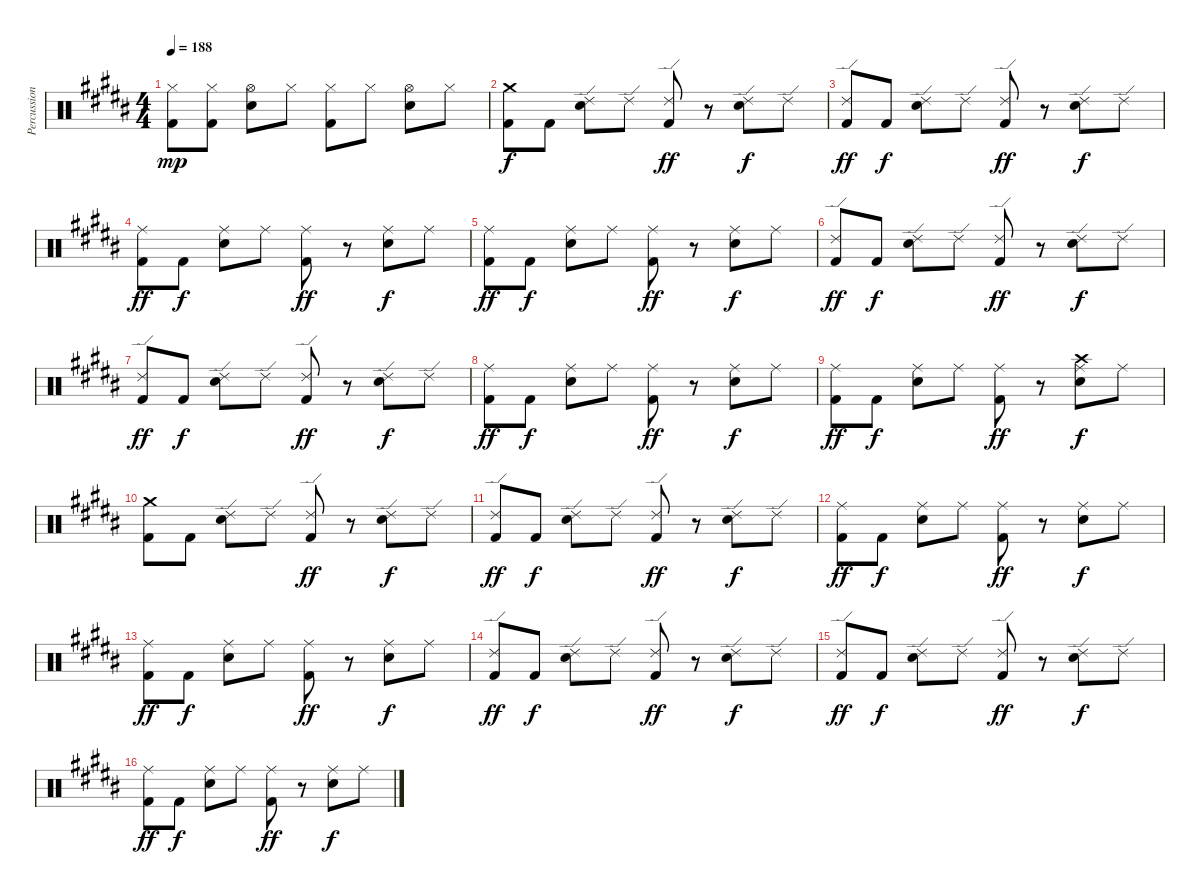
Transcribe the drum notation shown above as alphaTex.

\track ("Percussions" "Percussion") {instrument percussion}
\staff {score}
\articulation defaults
\ts (4 4)
\tempo 188
\clef neutral
\ks b
("Hi-Hat (closed)" "Kick (hit) 2").8{dy mp} ("Hi-Hat (closed)" "Kick (hit) 2").8 ("Hi-Hat (open)" "Snare (hit) 2").8 "Hi-Hat (closed)".8 ("Hi-Hat (closed)" "Kick (hit) 2").8 "Hi-Hat (closed)".8 ("Hi-Hat (open)" "Snare (hit) 2").8 "Hi-Hat (closed)".8 |
("Crash medium (hit)" "Kick (hit) 2").8{dy f} "Kick (hit) 2".8 ("Ride (edge) 2" "Snare (hit) 2").8 "Ride (edge) 2".8 ("Ride (edge) 2" "Kick (hit) 2").8{dy ff} r.8 ("Ride (edge) 2" "Snare (hit) 2").8{dy f} "Ride (edge) 2".8 |
("Ride (edge) 2" "Kick (hit) 2").8{dy ff} "Kick (hit) 2".8{dy f} ("Ride (edge) 2" "Snare (hit) 2").8 "Ride (edge) 2".8 ("Ride (edge) 2" "Kick (hit) 2").8{dy ff} r.8 ("Ride (edge) 2" "Snare (hit) 2").8{dy f} "Ride (edge) 2".8 |
("Ride (middle)" "Kick (hit) 2").8{dy ff} "Kick (hit) 2".8{dy f} ("Ride (middle)" "Snare (hit) 2").8 "Ride (middle)".8 ("Ride (middle)" "Kick (hit) 2").8{dy ff} r.8 ("Ride (middle)" "Snare (hit) 2").8{dy f} "Ride (middle)".8 |
("Ride (middle)" "Kick (hit) 2").8{dy ff} "Kick (hit) 2".8{dy f} ("Ride (middle)" "Snare (hit) 2").8 "Ride (middle)".8 ("Ride (middle)" "Kick (hit) 2").8{dy ff} r.8 ("Ride (middle)" "Snare (hit) 2").8{dy f} "Ride (middle)".8 |
("Ride (edge) 2" "Kick (hit) 2").8{dy ff} "Kick (hit) 2".8{dy f} ("Ride (edge) 2" "Snare (hit) 2").8 "Ride (edge) 2".8 ("Ride (edge) 2" "Kick (hit) 2").8{dy ff} r.8 ("Ride (edge) 2" "Snare (hit) 2").8{dy f} "Ride (edge) 2".8 |
("Ride (edge) 2" "Kick (hit) 2").8{dy ff} "Kick (hit) 2".8{dy f} ("Ride (edge) 2" "Snare (hit) 2").8 "Ride (edge) 2".8 ("Ride (edge) 2" "Kick (hit) 2").8{dy ff} r.8 ("Ride (edge) 2" "Snare (hit) 2").8{dy f} "Ride (edge) 2".8 |
("Ride (middle)" "Kick (hit) 2").8{dy ff} "Kick (hit) 2".8{dy f} ("Ride (middle)" "Snare (hit) 2").8 "Ride (middle)".8 ("Ride (middle)" "Kick (hit) 2").8{dy ff} r.8 ("Ride (middle)" "Snare (hit) 2").8{dy f} "Ride (middle)".8 |
("Ride (middle)" "Kick (hit) 2").8{dy ff} "Kick (hit) 2".8{dy f} ("Ride (middle)" "Snare (hit) 2").8 "Ride (middle)".8 ("Ride (middle)" "Kick (hit) 2").8{dy ff} r.8 ("Crash high (hit)" "Ride (middle)" "Snare (hit) 2").8{dy f} "Ride (middle)".8 |
("Crash medium (hit)" "Kick (hit) 2").8 "Kick (hit) 2".8 ("Ride (edge) 2" "Snare (hit) 2").8 "Ride (edge) 2".8 ("Ride (edge) 2" "Kick (hit) 2").8{dy ff} r.8 ("Ride (edge) 2" "Snare (hit) 2").8{dy f} "Ride (edge) 2".8 |
("Ride (edge) 2" "Kick (hit) 2").8{dy ff} "Kick (hit) 2".8{dy f} ("Ride (edge) 2" "Snare (hit) 2").8 "Ride (edge) 2".8 ("Ride (edge) 2" "Kick (hit) 2").8{dy ff} r.8 ("Ride (edge) 2" "Snare (hit) 2").8{dy f} "Ride (edge) 2".8 |
("Ride (middle)" "Kick (hit) 2").8{dy ff} "Kick (hit) 2".8{dy f} ("Ride (middle)" "Snare (hit) 2").8 "Ride (middle)".8 ("Ride (middle)" "Kick (hit) 2").8{dy ff} r.8 ("Ride (middle)" "Snare (hit) 2").8{dy f} "Ride (middle)".8 |
("Ride (middle)" "Kick (hit) 2").8{dy ff} "Kick (hit) 2".8{dy f} ("Ride (middle)" "Snare (hit) 2").8 "Ride (middle)".8 ("Ride (middle)" "Kick (hit) 2").8{dy ff} r.8 ("Ride (middle)" "Snare (hit) 2").8{dy f} "Ride (middle)".8 |
("Ride (edge) 2" "Kick (hit) 2").8{dy ff} "Kick (hit) 2".8{dy f} ("Ride (edge) 2" "Snare (hit) 2").8 "Ride (edge) 2".8 ("Ride (edge) 2" "Kick (hit) 2").8{dy ff} r.8 ("Ride (edge) 2" "Snare (hit) 2").8{dy f} "Ride (edge) 2".8 |
("Ride (edge) 2" "Kick (hit) 2").8{dy ff} "Kick (hit) 2".8{dy f} ("Ride (edge) 2" "Snare (hit) 2").8 "Ride (edge) 2".8 ("Ride (edge) 2" "Kick (hit) 2").8{dy ff} r.8 ("Ride (edge) 2" "Snare (hit) 2").8{dy f} "Ride (edge) 2".8 |
("Ride (middle)" "Kick (hit) 2").8{dy ff} "Kick (hit) 2".8{dy f} ("Ride (middle)" "Snare (hit) 2").8 "Ride (middle)".8 ("Ride (middle)" "Kick (hit) 2").8{dy ff} r.8 ("Ride (middle)" "Snare (hit) 2").8{dy f} "Ride (middle)".8
